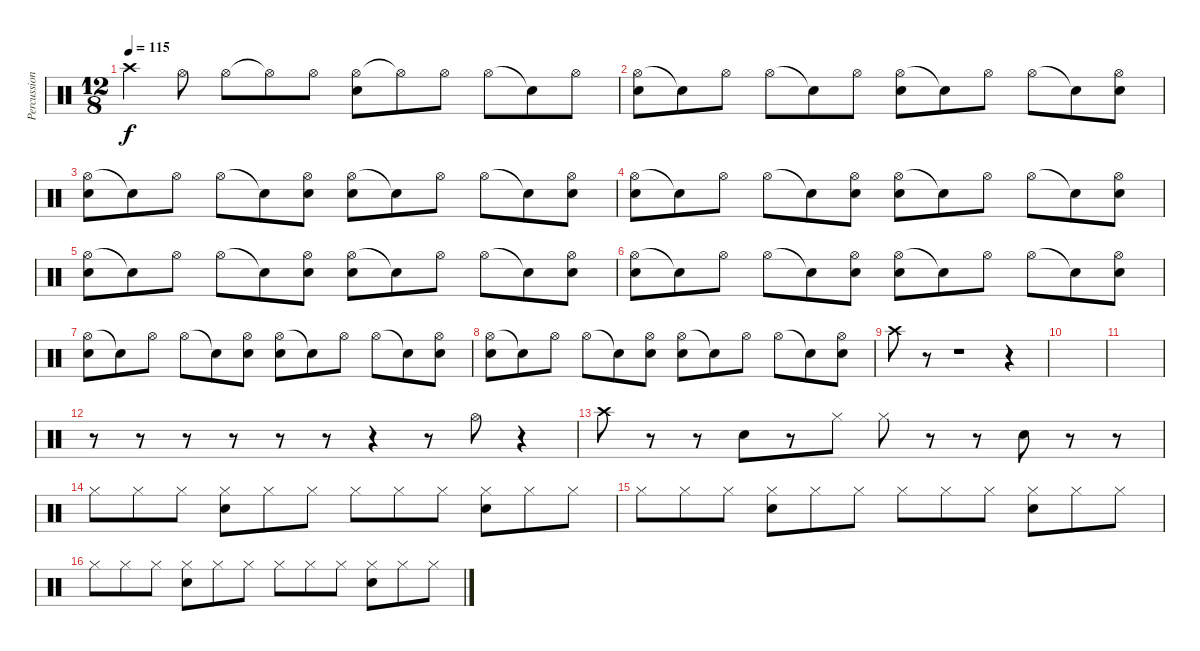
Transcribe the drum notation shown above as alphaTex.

\track ("Percussions" "Percussion") {instrument percussion}
\staff {score}
\articulation defaults
\ts (12 8)
\tempo 115
\clef neutral
\ks c "Crash high (hit)".4{dy f} "Hi-Hat (open)".8 "Hi-Hat (open)".8 "Hi-Hat (open)"{t}.8 "Hi-Hat (open)".8
("Hi-Hat (open)" "Snare (hit) 2").8 "Hi-Hat (open)"{t}.8 "Hi-Hat (open)".8 "Hi-Hat (open)".8 "Snare (hit)"{t}.8 "Hi-Hat (open)".8 |
("Hi-Hat (open)" "Snare (hit) 2").8 "Snare (hit)"{t}.8 "Hi-Hat (open)".8 "Hi-Hat (open)".8 "Snare (hit)"{t}.8 "Hi-Hat (open)".8 ("Hi-Hat (open)" "Snare (hit) 2").8 "Snare (hit)"{t}.8 "Hi-Hat (open)".8 "Hi-Hat (open)".8 "Snare (hit)"{t}.8 ("Hi-Hat (open)" "Snare (hit) 2").8 |
("Hi-Hat (open)" "Snare (hit) 2").8 "Snare (hit)"{t}.8 "Hi-Hat (open)".8 "Hi-Hat (open)".8 "Snare (hit)"{t}.8 ("Hi-Hat (open)" "Snare (hit) 2").8 ("Hi-Hat (open)" "Snare (hit) 2").8 "Snare (hit)"{t}.8 "Hi-Hat (open)".8 "Hi-Hat (open)".8 "Snare (hit)"{t}.8 ("Hi-Hat (open)" "Snare (hit) 2").8 |
("Hi-Hat (open)" "Snare (hit) 2").8 "Snare (hit)"{t}.8 "Hi-Hat (open)".8 "Hi-Hat (open)".8 "Snare (hit)"{t}.8 ("Hi-Hat (open)" "Snare (hit) 2").8 ("Hi-Hat (open)" "Snare (hit) 2").8 "Snare (hit)"{t}.8 "Hi-Hat (open)".8 "Hi-Hat (open)".8 "Snare (hit)"{t}.8 ("Hi-Hat (open)" "Snare (hit) 2").8 |
("Hi-Hat (open)" "Snare (hit) 2").8 "Snare (hit)"{t}.8 "Hi-Hat (open)".8 "Hi-Hat (open)".8 "Snare (hit)"{t}.8 ("Hi-Hat (open)" "Snare (hit) 2").8 ("Hi-Hat (open)" "Snare (hit) 2").8 "Snare (hit)"{t}.8 "Hi-Hat (open)".8 "Hi-Hat (open)".8 "Snare (hit)"{t}.8 ("Hi-Hat (open)" "Snare (hit) 2").8 |
("Hi-Hat (open)" "Snare (hit) 2").8 "Snare (hit)"{t}.8 "Hi-Hat (open)".8 "Hi-Hat (open)".8 "Snare (hit)"{t}.8 ("Hi-Hat (open)" "Snare (hit) 2").8 ("Hi-Hat (open)" "Snare (hit) 2").8 "Snare (hit)"{t}.8 "Hi-Hat (open)".8 "Hi-Hat (open)".8 "Snare (hit)"{t}.8 ("Hi-Hat (open)" "Snare (hit) 2").8 |
("Hi-Hat (open)" "Snare (hit) 2").8 "Snare (hit)"{t}.8 "Hi-Hat (open)".8 "Hi-Hat (open)".8 "Snare (hit)"{t}.8 ("Hi-Hat (open)" "Snare (hit) 2").8 ("Hi-Hat (open)" "Snare (hit) 2").8 "Snare (hit)"{t}.8 "Hi-Hat (open)".8 "Hi-Hat (open)".8 "Snare (hit)"{t}.8 ("Hi-Hat (open)" "Snare (hit) 2").8 |
("Hi-Hat (open)" "Snare (hit) 2").8 "Snare (hit)"{t}.8 "Hi-Hat (open)".8 "Hi-Hat (open)".8 "Snare (hit)"{t}.8 ("Hi-Hat (open)" "Snare (hit) 2").8 ("Hi-Hat (open)" "Snare (hit) 2").8 "Snare (hit)"{t}.8 "Hi-Hat (open)".8 "Hi-Hat (open)".8 "Snare (hit)"{t}.8 ("Hi-Hat (open)" "Snare (hit) 2").8 |
"Crash high (hit)".8 r.8 r.1 r.4 |
|
|
r.8 r.8 r.8 r.8 r.8 r.8 r.4 r.8 "Hi-Hat (open)".8 r.4 |
"Crash high (hit)".8 r.8 r.8 "Electric Snare (hit)".8 r.8 "Hi-Hat (closed)".8 "Hi-Hat (closed)".8 r.8 r.8 "Electric Snare (hit)".8 r.8 r.8 |
"Hi-Hat (closed)".8 "Hi-Hat (closed)".8 "Hi-Hat (closed)".8 ("Hi-Hat (closed)" "Electric Snare (hit)").8 "Hi-Hat (closed)".8 "Hi-Hat (closed)".8 "Hi-Hat (closed)".8 "Hi-Hat (closed)".8 "Hi-Hat (closed)".8 ("Hi-Hat (closed)" "Electric Snare (hit)").8 "Hi-Hat (closed)".8 "Hi-Hat (closed)".8 |
"Hi-Hat (closed)".8 "Hi-Hat (closed)".8 "Hi-Hat (closed)".8 ("Hi-Hat (closed)" "Electric Snare (hit)").8 "Hi-Hat (closed)".8 "Hi-Hat (closed)".8 "Hi-Hat (closed)".8 "Hi-Hat (closed)".8 "Hi-Hat (closed)".8 ("Hi-Hat (closed)" "Electric Snare (hit)").8 "Hi-Hat (closed)".8 "Hi-Hat (closed)".8 |
"Hi-Hat (closed)".8 "Hi-Hat (closed)".8 "Hi-Hat (closed)".8 ("Hi-Hat (closed)" "Electric Snare (hit)").8 "Hi-Hat (closed)".8 "Hi-Hat (closed)".8 "Hi-Hat (closed)".8 "Hi-Hat (closed)".8 "Hi-Hat (closed)".8 ("Hi-Hat (closed)" "Electric Snare (hit)").8 "Hi-Hat (closed)".8 "Hi-Hat (closed)".8
